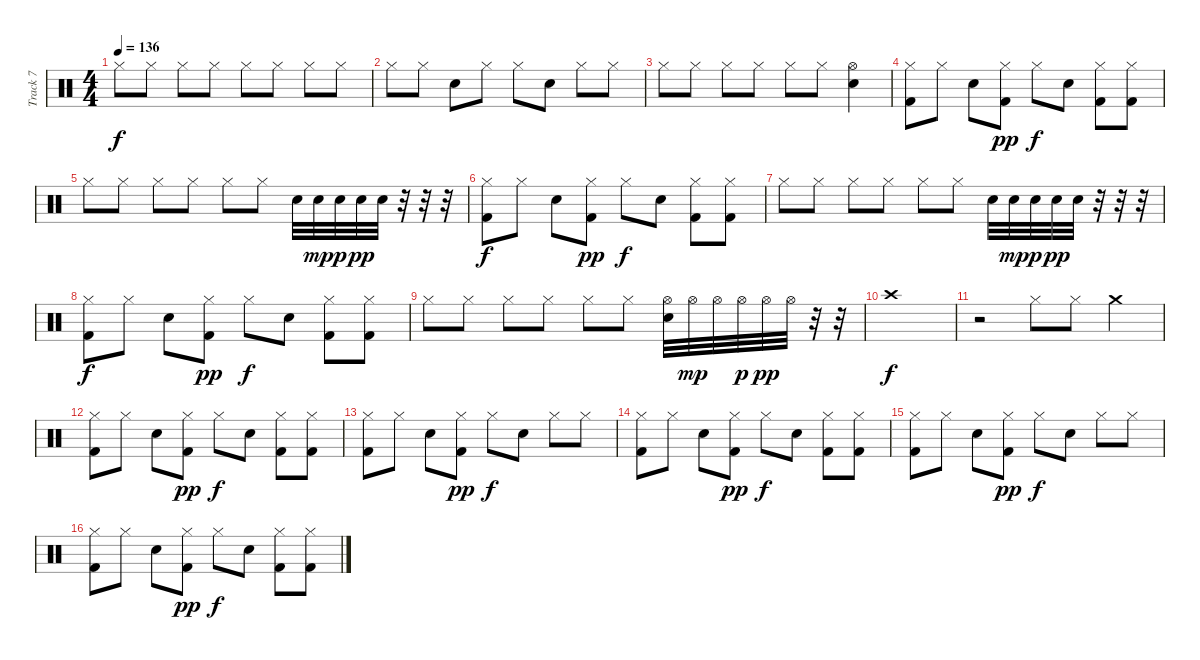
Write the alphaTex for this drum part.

\track ("Track 7" "Track 7") {instrument percussion}
\staff {score}
\articulation defaults
\ts (4 4)
\tempo 136
\clef neutral
\ks c "Hi-Hat (closed)".8{dy f} "Hi-Hat (closed)".8 "Hi-Hat (closed)".8 "Hi-Hat (closed)".8 "Hi-Hat (closed)".8 "Hi-Hat (closed)".8 "Hi-Hat (closed)".8 "Hi-Hat (closed)".8
|
"Hi-Hat (closed)".8 "Hi-Hat (closed)".8 "Electric Snare (hit)".8 "Hi-Hat (closed)".8 "Hi-Hat (closed)".8 "Electric Snare (hit)".8 "Hi-Hat (closed)".8 "Hi-Hat (closed)".8 |
"Hi-Hat (closed)".8 "Hi-Hat (closed)".8 "Hi-Hat (closed)".8 "Hi-Hat (closed)".8 "Hi-Hat (closed)".8 "Hi-Hat (closed)".8 ("Hi-Hat (open)" "Electric Snare (hit)").4 |
("Hi-Hat (closed)" "Kick (hit) 2").8 "Hi-Hat (closed)".8 "Electric Snare (hit)".8 ("Hi-Hat (closed)" "Kick (hit) 2").8{dy pp} "Hi-Hat (closed)".8{dy f} "Electric Snare (hit)".8 ("Hi-Hat (closed)" "Kick (hit) 2").8 ("Hi-Hat (closed)" "Kick (hit) 2").8 |
"Hi-Hat (closed)".8 "Hi-Hat (closed)".8 "Hi-Hat (closed)".8 "Hi-Hat (closed)".8 "Hi-Hat (closed)".8 "Hi-Hat (closed)".8 "Electric Snare (hit)".32 "Electric Snare (hit)".32{dy mp} "Electric Snare (hit)".32{dy p} "Electric Snare (hit)".32{dy pp} "Electric Snare (hit)".32 r.32 r.32 r.32 |
("Hi-Hat (closed)" "Kick (hit) 2").8{dy f} "Hi-Hat (closed)".8 "Electric Snare (hit)".8 ("Hi-Hat (closed)" "Kick (hit) 2").8{dy pp} "Hi-Hat (closed)".8{dy f} "Electric Snare (hit)".8 ("Hi-Hat (closed)" "Kick (hit) 2").8 ("Hi-Hat (closed)" "Kick (hit) 2").8 |
"Hi-Hat (closed)".8 "Hi-Hat (closed)".8 "Hi-Hat (closed)".8 "Hi-Hat (closed)".8 "Hi-Hat (closed)".8 "Hi-Hat (closed)".8 "Electric Snare (hit)".32 "Electric Snare (hit)".32{dy mp} "Electric Snare (hit)".32{dy p} "Electric Snare (hit)".32{dy pp} "Electric Snare (hit)".32 r.32 r.32 r.32 |
("Hi-Hat (closed)" "Kick (hit) 2").8{dy f} "Hi-Hat (closed)".8 "Electric Snare (hit)".8 ("Hi-Hat (closed)" "Kick (hit) 2").8{dy pp} "Hi-Hat (closed)".8{dy f} "Electric Snare (hit)".8 ("Hi-Hat (closed)" "Kick (hit) 2").8 ("Hi-Hat (closed)" "Kick (hit) 2").8 |
"Hi-Hat (closed)".8 "Hi-Hat (closed)".8 "Hi-Hat (closed)".8 "Hi-Hat (closed)".8 "Hi-Hat (closed)".8 "Hi-Hat (closed)".8 ("Hi-Hat (open)" "Electric Snare (hit)").32 "Hi-Hat (open)".32{dy mp} "Hi-Hat (open)".32 "Hi-Hat (open)".32{dy p} "Hi-Hat (open)".32{dy pp} "Hi-Hat (open)".32 r.32 r.32 |
"Crash high (hit)".1{dy f} |
r.2 "Hi-Hat (closed)".8 "Hi-Hat (closed)".8 "Crash medium (hit)".4 |
("Hi-Hat (closed)" "Kick (hit) 2").8 "Hi-Hat (closed)".8 "Electric Snare (hit)".8 ("Hi-Hat (closed)" "Kick (hit) 2").8{dy pp} "Hi-Hat (closed)".8{dy f} "Electric Snare (hit)".8 ("Hi-Hat (closed)" "Kick (hit) 2").8 ("Hi-Hat (closed)" "Kick (hit) 2").8 |
("Hi-Hat (closed)" "Kick (hit) 2").8 "Hi-Hat (closed)".8 "Electric Snare (hit)".8 ("Hi-Hat (closed)" "Kick (hit) 2").8{dy pp} "Hi-Hat (closed)".8{dy f} "Electric Snare (hit)".8 "Hi-Hat (closed)".8 "Hi-Hat (closed)".8 |
("Hi-Hat (closed)" "Kick (hit) 2").8 "Hi-Hat (closed)".8 "Electric Snare (hit)".8 ("Hi-Hat (closed)" "Kick (hit) 2").8{dy pp} "Hi-Hat (closed)".8{dy f} "Electric Snare (hit)".8 ("Hi-Hat (closed)" "Kick (hit) 2").8 ("Hi-Hat (closed)" "Kick (hit) 2").8 |
("Hi-Hat (closed)" "Kick (hit) 2").8 "Hi-Hat (closed)".8 "Electric Snare (hit)".8 ("Hi-Hat (closed)" "Kick (hit) 2").8{dy pp} "Hi-Hat (closed)".8{dy f} "Electric Snare (hit)".8 "Hi-Hat (closed)".8 "Hi-Hat (closed)".8 |
("Hi-Hat (closed)" "Kick (hit) 2").8 "Hi-Hat (closed)".8 "Electric Snare (hit)".8 ("Hi-Hat (closed)" "Kick (hit) 2").8{dy pp} "Hi-Hat (closed)".8{dy f} "Electric Snare (hit)".8 ("Hi-Hat (closed)" "Kick (hit) 2").8 ("Hi-Hat (closed)" "Kick (hit) 2").8
